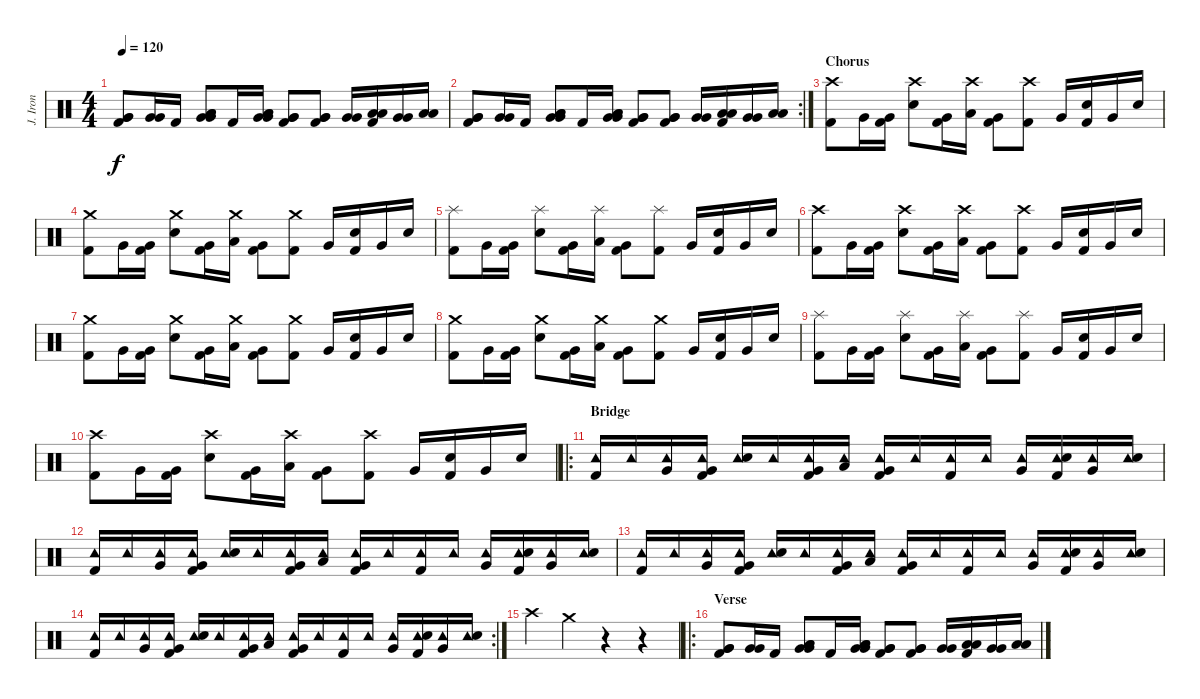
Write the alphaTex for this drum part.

\track ("J. Iron" "J. Iron") {instrument percussion}
\staff {score}
\articulation defaults
\ts (4 4)
\tempo 120
\clef neutral
\ks c
("Very Low Tom (hit)" "Very Low Tom (hit)" "Kick (hit) 2").8{dy f} ("Very Low Tom (hit)" "Very Low Tom (hit)").16 "Kick (hit) 2".16 ("Low Tom (hit)" "Very Low Tom (hit)" "Very Low Tom (hit)" "Low Tom (hit)").8 "Kick (hit) 2".16 ("Low Tom (hit)" "Very Low Tom (hit)" "Very Low Tom (hit)" "Low Tom (hit)").16 ("Very Low Tom (hit)" "Very Low Tom (hit)" "Kick (hit) 2").8 ("Very Low Tom (hit)" "Very Low Tom (hit)" "Kick (hit) 2").8 ("Very Low Tom (hit)" "Very Low Tom (hit)").16 ("Low Tom (hit)" "Low Tom (hit)" "Kick (hit) 2").16 ("Very Low Tom (hit)" "Very Low Tom (hit)").16 ("Low Tom (hit)" "Low Tom (hit)").16 |
\rc 2
("Very Low Tom (hit)" "Very Low Tom (hit)" "Kick (hit) 2").8 ("Very Low Tom (hit)" "Very Low Tom (hit)").16 "Kick (hit) 2".16 ("Low Tom (hit)" "Very Low Tom (hit)" "Very Low Tom (hit)" "Low Tom (hit)").8 "Kick (hit) 2".16 ("Low Tom (hit)" "Very Low Tom (hit)" "Very Low Tom (hit)" "Low Tom (hit)").16 ("Very Low Tom (hit)" "Very Low Tom (hit)" "Kick (hit) 2").8 ("Very Low Tom (hit)" "Very Low Tom (hit)" "Kick (hit) 2").8 ("Very Low Tom (hit)" "Very Low Tom (hit)").16 ("Low Tom (hit)" "Low Tom (hit)" "Kick (hit) 2").16 ("Very Low Tom (hit)" "Very Low Tom (hit)").16 ("Low Tom (hit)" "Low Tom (hit)").16 |
\section ("" "Chorus")
("Crash high (hit)" "Kick (hit) 2").8 "Very Low Tom (hit)".16 ("Very Low Tom (hit)" "Kick (hit) 2").16 ("Crash high (hit)" "Snare (hit) 2").8 ("Very Low Tom (hit)" "Kick (hit) 2").16 ("Crash high (hit)" "Low Tom (hit)").16 ("Very Low Tom (hit)" "Kick (hit) 2").8 ("Crash high (hit)" "Kick (hit) 2").8 "Very Low Tom (hit)".16 ("Snare (hit) 2" "Kick (hit) 2").16 "Very Low Tom (hit)".16 "Snare (hit) 2".16 |
("Crash medium (hit)" "Kick (hit) 2").8 "Very Low Tom (hit)".16 ("Very Low Tom (hit)" "Kick (hit) 2").16 ("Crash medium (hit)" "Snare (hit) 2").8 ("Very Low Tom (hit)" "Kick (hit) 2").16 ("Crash medium (hit)" "Low Tom (hit)").16 ("Very Low Tom (hit)" "Kick (hit) 2").8 ("Crash medium (hit)" "Kick (hit) 2").8 "Very Low Tom (hit)".16 ("Snare (hit) 2" "Kick (hit) 2").16 "Very Low Tom (hit)".16 "Snare (hit) 2".16 |
("Splash (hit)" "Kick (hit) 2").8 "Very Low Tom (hit)".16 ("Very Low Tom (hit)" "Kick (hit) 2").16 ("Splash (hit)" "Snare (hit) 2").8 ("Very Low Tom (hit)" "Kick (hit) 2").16 ("Splash (hit)" "Low Tom (hit)").16 ("Very Low Tom (hit)" "Kick (hit) 2").8 ("Splash (hit)" "Kick (hit) 2").8 "Very Low Tom (hit)".16 ("Snare (hit) 2" "Kick (hit) 2").16 "Very Low Tom (hit)".16 "Snare (hit) 2".16 |
("Crash high (hit)" "Kick (hit) 2").8 "Very Low Tom (hit)".16 ("Very Low Tom (hit)" "Kick (hit) 2").16 ("Crash high (hit)" "Snare (hit) 2").8 ("Very Low Tom (hit)" "Kick (hit) 2").16 ("Crash high (hit)" "Low Tom (hit)").16 ("Very Low Tom (hit)" "Kick (hit) 2").8 ("Crash high (hit)" "Kick (hit) 2").8 "Very Low Tom (hit)".16 ("Snare (hit) 2" "Kick (hit) 2").16 "Very Low Tom (hit)".16 "Snare (hit) 2".16 |
("Crash medium (hit)" "Kick (hit) 2").8 "Very Low Tom (hit)".16 ("Very Low Tom (hit)" "Kick (hit) 2").16 ("Crash medium (hit)" "Snare (hit) 2").8 ("Very Low Tom (hit)" "Kick (hit) 2").16 ("Crash medium (hit)" "Low Tom (hit)").16 ("Very Low Tom (hit)" "Kick (hit) 2").8 ("Crash medium (hit)" "Kick (hit) 2").8 "Very Low Tom (hit)".16 ("Snare (hit) 2" "Kick (hit) 2").16 "Very Low Tom (hit)".16 "Snare (hit) 2".16 |
("Crash medium (hit)" "Kick (hit) 2").8 "Very Low Tom (hit)".16 ("Very Low Tom (hit)" "Kick (hit) 2").16 ("Crash medium (hit)" "Snare (hit) 2").8 ("Very Low Tom (hit)" "Kick (hit) 2").16 ("Crash medium (hit)" "Low Tom (hit)").16 ("Very Low Tom (hit)" "Kick (hit) 2").8 ("Crash medium (hit)" "Kick (hit) 2").8 "Very Low Tom (hit)".16 ("Snare (hit) 2" "Kick (hit) 2").16 "Very Low Tom (hit)".16 "Snare (hit) 2".16 |
("Splash (hit)" "Kick (hit) 2").8 "Very Low Tom (hit)".16 ("Very Low Tom (hit)" "Kick (hit) 2").16 ("Splash (hit)" "Snare (hit) 2").8 ("Very Low Tom (hit)" "Kick (hit) 2").16 ("Splash (hit)" "Low Tom (hit)").16 ("Very Low Tom (hit)" "Kick (hit) 2").8 ("Splash (hit)" "Kick (hit) 2").8 "Very Low Tom (hit)".16 ("Snare (hit) 2" "Kick (hit) 2").16 "Very Low Tom (hit)".16 "Snare (hit) 2".16 |
("Crash high (hit)" "Kick (hit) 2").8 "Very Low Tom (hit)".16 ("Very Low Tom (hit)" "Kick (hit) 2").16 ("Crash high (hit)" "Snare (hit) 2").8 ("Very Low Tom (hit)" "Kick (hit) 2").16 ("Crash high (hit)" "Low Tom (hit)").16 ("Very Low Tom (hit)" "Kick (hit) 2").8 ("Crash high (hit)" "Kick (hit) 2").8 "Very Low Tom (hit)".16 ("Snare (hit) 2" "Kick (hit) 2").16 "Very Low Tom (hit)".16 "Snare (hit) 2".16 |
\ro
\section ("" "Bridge")
("Tambourine (hit)" "Kick (hit) 2").16 "Tambourine (hit)".16 ("Tambourine (hit)" "Very Low Tom (hit)").16 ("Tambourine (hit)" "Very Low Tom (hit)" "Kick (hit) 2").16 ("Tambourine (hit)" "Snare (hit) 2").16 "Tambourine (hit)".16 ("Tambourine (hit)" "Very Low Tom (hit)" "Kick (hit) 2").16 ("Tambourine (hit)" "Low Tom (hit)").16 ("Tambourine (hit)" "Very Low Tom (hit)" "Kick (hit) 2").16 "Tambourine (hit)".16 ("Tambourine (hit)" "Kick (hit) 2").16 "Tambourine (hit)".16 ("Tambourine (hit)" "Very Low Tom (hit)").16 ("Tambourine (hit)" "Snare (hit) 2" "Kick (hit) 2").16 ("Tambourine (hit)" "Very Low Tom (hit)").16 ("Tambourine (hit)" "Snare (hit) 2").16 |
("Tambourine (hit)" "Kick (hit) 2").16 "Tambourine (hit)".16 ("Tambourine (hit)" "Very Low Tom (hit)").16 ("Tambourine (hit)" "Very Low Tom (hit)" "Kick (hit) 2").16 ("Tambourine (hit)" "Snare (hit) 2").16 "Tambourine (hit)".16 ("Tambourine (hit)" "Very Low Tom (hit)" "Kick (hit) 2").16 ("Tambourine (hit)" "Low Tom (hit)").16 ("Tambourine (hit)" "Very Low Tom (hit)" "Kick (hit) 2").16 "Tambourine (hit)".16 ("Tambourine (hit)" "Kick (hit) 2").16 "Tambourine (hit)".16 ("Tambourine (hit)" "Very Low Tom (hit)").16 ("Tambourine (hit)" "Snare (hit) 2" "Kick (hit) 2").16 ("Tambourine (hit)" "Very Low Tom (hit)").16 ("Tambourine (hit)" "Snare (hit) 2").16 |
("Tambourine (hit)" "Kick (hit) 2").16 "Tambourine (hit)".16 ("Tambourine (hit)" "Very Low Tom (hit)").16 ("Tambourine (hit)" "Very Low Tom (hit)" "Kick (hit) 2").16 ("Tambourine (hit)" "Snare (hit) 2").16 "Tambourine (hit)".16 ("Tambourine (hit)" "Very Low Tom (hit)" "Kick (hit) 2").16 ("Tambourine (hit)" "Low Tom (hit)").16 ("Tambourine (hit)" "Very Low Tom (hit)" "Kick (hit) 2").16 "Tambourine (hit)".16 ("Tambourine (hit)" "Kick (hit) 2").16 "Tambourine (hit)".16 ("Tambourine (hit)" "Very Low Tom (hit)").16 ("Tambourine (hit)" "Snare (hit) 2" "Kick (hit) 2").16 ("Tambourine (hit)" "Very Low Tom (hit)").16 ("Tambourine (hit)" "Snare (hit) 2").16 |
\rc 2
("Tambourine (hit)" "Kick (hit) 2").16 "Tambourine (hit)".16 ("Tambourine (hit)" "Very Low Tom (hit)").16 ("Tambourine (hit)" "Very Low Tom (hit)" "Kick (hit) 2").16 ("Tambourine (hit)" "Snare (hit) 2").16 "Tambourine (hit)".16 ("Tambourine (hit)" "Very Low Tom (hit)" "Kick (hit) 2").16 ("Tambourine (hit)" "Low Tom (hit)").16 ("Tambourine (hit)" "Very Low Tom (hit)" "Kick (hit) 2").16 "Tambourine (hit)".16 ("Tambourine (hit)" "Kick (hit) 2").16 "Tambourine (hit)".16 ("Tambourine (hit)" "Very Low Tom (hit)").16 ("Tambourine (hit)" "Snare (hit) 2" "Kick (hit) 2").16 ("Tambourine (hit)" "Very Low Tom (hit)").16 ("Tambourine (hit)" "Snare (hit) 2").16 |
"Crash high (hit)".4 "Crash medium (hit)".4 r.4 r.4 |
\ro
\section ("" "Verse")
("Very Low Tom (hit)" "Very Low Tom (hit)" "Kick (hit) 2").8 ("Very Low Tom (hit)" "Very Low Tom (hit)").16 "Kick (hit) 2".16 ("Low Tom (hit)" "Very Low Tom (hit)" "Very Low Tom (hit)" "Low Tom (hit)").8 "Kick (hit) 2".16 ("Low Tom (hit)" "Very Low Tom (hit)" "Very Low Tom (hit)" "Low Tom (hit)").16 ("Very Low Tom (hit)" "Very Low Tom (hit)" "Kick (hit) 2").8 ("Very Low Tom (hit)" "Very Low Tom (hit)" "Kick (hit) 2").8 ("Very Low Tom (hit)" "Very Low Tom (hit)").16 ("Low Tom (hit)" "Low Tom (hit)" "Kick (hit) 2").16 ("Very Low Tom (hit)" "Very Low Tom (hit)").16 ("Low Tom (hit)" "Low Tom (hit)").16
